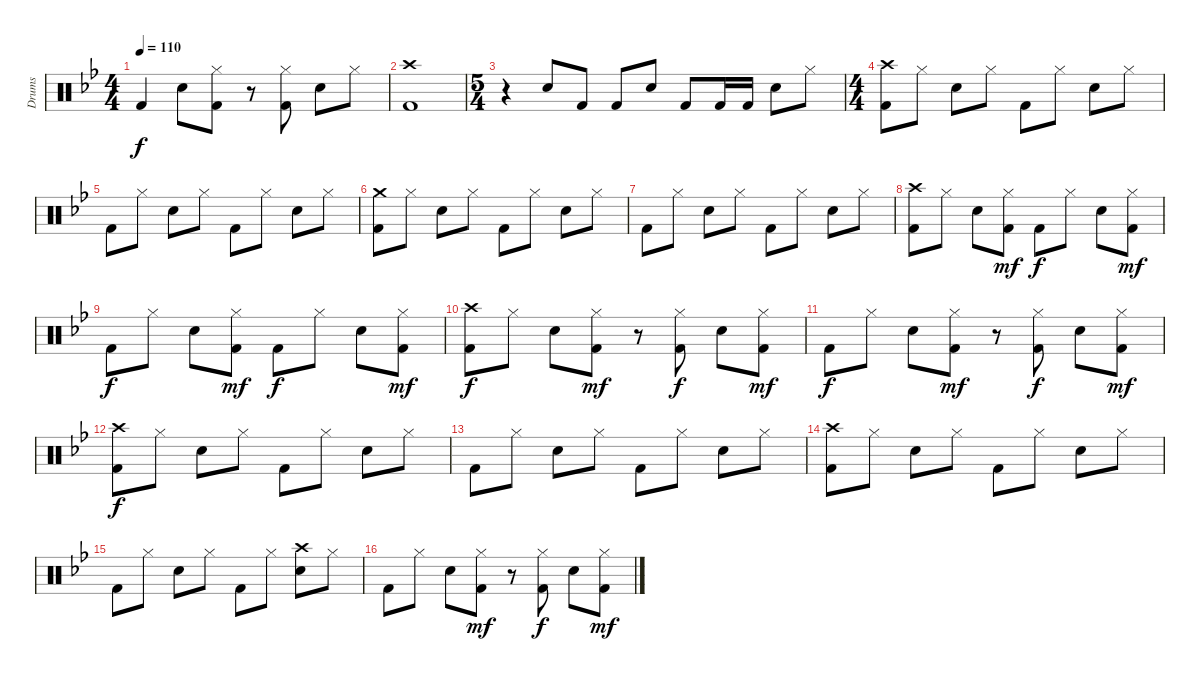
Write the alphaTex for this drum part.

\track ("Drums" "Drums") {instrument percussion}
\staff {score}
\articulation defaults
\ts (4 4)
\tempo 110
\clef neutral
\ks gminor "Kick (hit) 2".4{dy f} "Snare (hit) 2".8
("Hi-Hat (closed)" "Kick (hit) 2").8 r.8 ("Hi-Hat (closed)" "Kick (hit) 2").8 "Snare (hit) 2".8 "Hi-Hat (closed)".8 |
("Crash high (hit)" "Kick (hit) 2").1 |
\ts (5 4)
r.4 "Snare (hit) 2".8 "Kick (hit) 2".8 "Kick (hit) 2".8 "Snare (hit) 2".8 "Kick (hit) 2".8 "Kick (hit) 2".16 "Kick (hit) 2".16 "Snare (hit) 2".8 "Hi-Hat (closed)".8 |
\ts (4 4)
("Crash high (hit)" "Kick (hit) 2").8 "Hi-Hat (closed)".8 "Snare (hit) 2".8 "Hi-Hat (closed)".8 "Kick (hit) 2".8 "Hi-Hat (closed)".8 "Snare (hit) 2".8 "Hi-Hat (closed)".8 |
"Kick (hit) 2".8 "Hi-Hat (closed)".8 "Snare (hit) 2".8 "Hi-Hat (closed)".8 "Kick (hit) 2".8 "Hi-Hat (closed)".8 "Snare (hit) 2".8 "Hi-Hat (closed)".8 |
("Crash medium (hit)" "Kick (hit) 2").8 "Hi-Hat (closed)".8 "Snare (hit) 2".8 "Hi-Hat (closed)".8 "Kick (hit) 2".8 "Hi-Hat (closed)".8 "Snare (hit) 2".8 "Hi-Hat (closed)".8 |
"Kick (hit) 2".8 "Hi-Hat (closed)".8 "Snare (hit) 2".8 "Hi-Hat (closed)".8 "Kick (hit) 2".8 "Hi-Hat (closed)".8 "Snare (hit) 2".8 "Hi-Hat (closed)".8 |
("Crash high (hit)" "Kick (hit) 2").8 "Hi-Hat (closed)".8 "Snare (hit) 2".8 ("Hi-Hat (closed)" "Kick (hit) 2").8{dy mf} "Kick (hit) 2".8{dy f} "Hi-Hat (closed)".8 "Snare (hit) 2".8 ("Hi-Hat (closed)" "Kick (hit) 2").8{dy mf} |
"Kick (hit) 2".8{dy f} "Hi-Hat (closed)".8 "Snare (hit) 2".8 ("Hi-Hat (closed)" "Kick (hit) 2").8{dy mf} "Kick (hit) 2".8{dy f} "Hi-Hat (closed)".8 "Snare (hit) 2".8 ("Hi-Hat (closed)" "Kick (hit) 2").8{dy mf} |
("Crash high (hit)" "Kick (hit) 2").8{dy f} "Hi-Hat (closed)".8 "Snare (hit) 2".8 ("Hi-Hat (closed)" "Kick (hit) 2").8{dy mf} r.8 ("Hi-Hat (closed)" "Kick (hit) 2").8{dy f} "Snare (hit) 2".8 ("Hi-Hat (closed)" "Kick (hit) 2").8{dy mf} |
"Kick (hit) 2".8{dy f} "Hi-Hat (closed)".8 "Snare (hit) 2".8 ("Hi-Hat (closed)" "Kick (hit) 2").8{dy mf} r.8 ("Hi-Hat (closed)" "Kick (hit) 2").8{dy f} "Snare (hit) 2".8 ("Hi-Hat (closed)" "Kick (hit) 2").8{dy mf} |
("Crash high (hit)" "Kick (hit) 2").8{dy f} "Hi-Hat (closed)".8 "Snare (hit) 2".8 "Hi-Hat (closed)".8 "Kick (hit) 2".8 "Hi-Hat (closed)".8 "Snare (hit) 2".8 "Hi-Hat (closed)".8 |
"Kick (hit) 2".8 "Hi-Hat (closed)".8 "Snare (hit) 2".8 "Hi-Hat (closed)".8 "Kick (hit) 2".8 "Hi-Hat (closed)".8 "Snare (hit) 2".8 "Hi-Hat (closed)".8 |
("Crash high (hit)" "Kick (hit) 2").8 "Hi-Hat (closed)".8 "Snare (hit) 2".8 "Hi-Hat (closed)".8 "Kick (hit) 2".8 "Hi-Hat (closed)".8 "Snare (hit) 2".8 "Hi-Hat (closed)".8 |
"Kick (hit) 2".8 "Hi-Hat (closed)".8 "Snare (hit) 2".8 "Hi-Hat (closed)".8 "Kick (hit) 2".8 "Hi-Hat (closed)".8 ("Crash high (hit)" "Snare (hit) 2").8 "Hi-Hat (closed)".8 |
"Kick (hit) 2".8 "Hi-Hat (closed)".8 "Snare (hit) 2".8 ("Hi-Hat (closed)" "Kick (hit) 2").8{dy mf} r.8 ("Hi-Hat (closed)" "Kick (hit) 2").8{dy f} "Snare (hit) 2".8 ("Hi-Hat (closed)" "Kick (hit) 2").8{dy mf}
